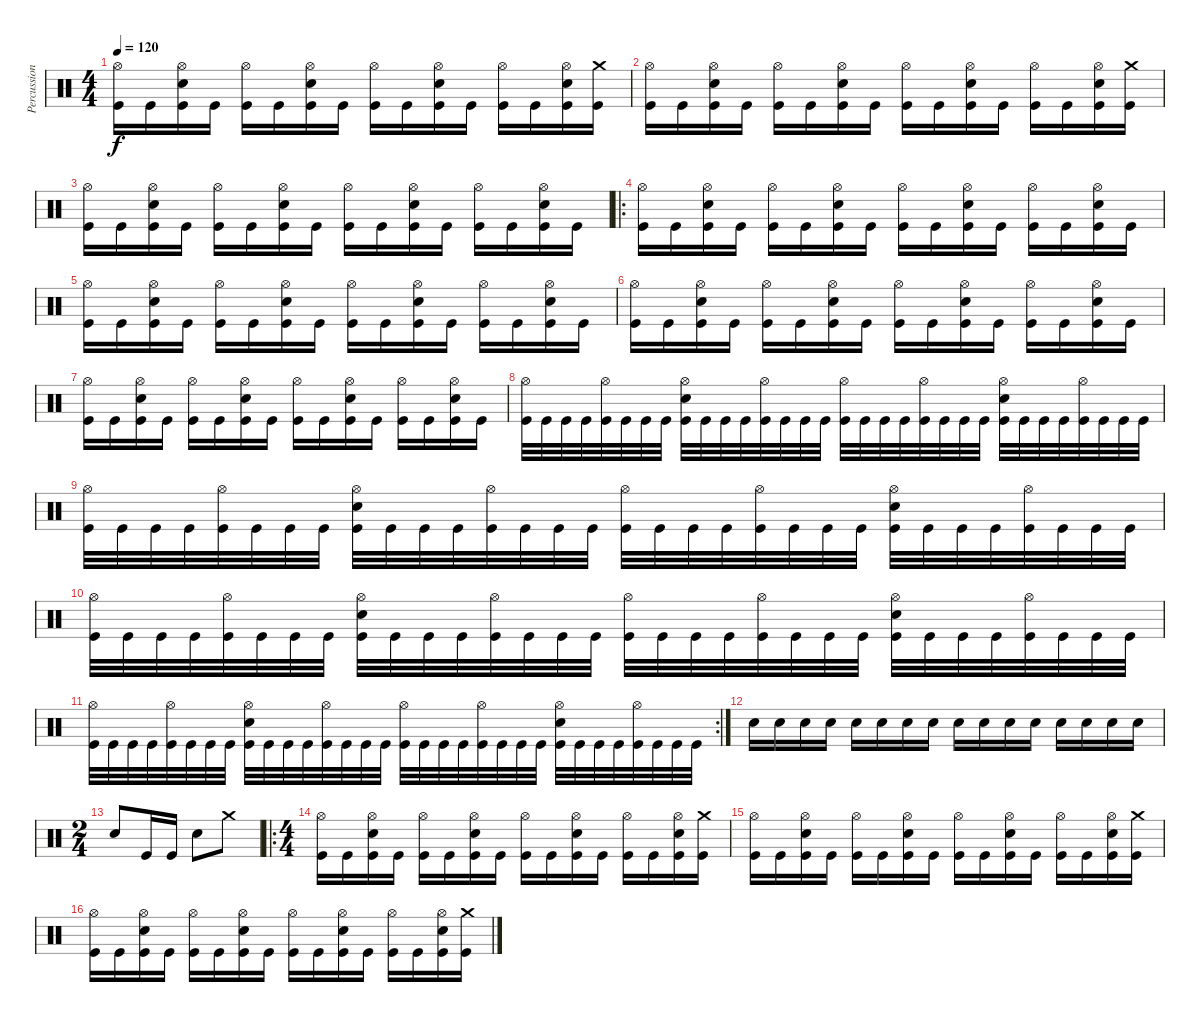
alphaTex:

\track ("Percussion" "Percussion") {instrument percussion}
\staff {score}
\articulation defaults
\ts (4 4)
\tempo 120
\clef neutral
\ks c
("Hi-Hat (open)" "Kick (hit)").16{dy f} "Kick (hit)".16 ("Hi-Hat (open)" "Snare (hit) 2" "Kick (hit)").16 "Kick (hit)".16 ("Hi-Hat (open)" "Kick (hit)").16 "Kick (hit)".16 ("Hi-Hat (open)" "Snare (hit) 2" "Kick (hit)").16 "Kick (hit)".16 ("Hi-Hat (open)" "Kick (hit)").16 "Kick (hit)".16 ("Hi-Hat (open)" "Snare (hit) 2" "Kick (hit)").16 "Kick (hit)".16 ("Hi-Hat (open)" "Kick (hit)").16 "Kick (hit)".16 ("Hi-Hat (open)" "Snare (hit) 2" "Kick (hit)").16 ("Crash medium (hit)" "Kick (hit)").16 |
("Hi-Hat (open)" "Kick (hit)").16 "Kick (hit)".16 ("Hi-Hat (open)" "Snare (hit) 2" "Kick (hit)").16 "Kick (hit)".16 ("Hi-Hat (open)" "Kick (hit)").16 "Kick (hit)".16 ("Hi-Hat (open)" "Snare (hit) 2" "Kick (hit)").16 "Kick (hit)".16 ("Hi-Hat (open)" "Kick (hit)").16 "Kick (hit)".16 ("Hi-Hat (open)" "Snare (hit) 2" "Kick (hit)").16 "Kick (hit)".16 ("Hi-Hat (open)" "Kick (hit)").16 "Kick (hit)".16 ("Hi-Hat (open)" "Snare (hit) 2" "Kick (hit)").16 ("Crash medium (hit)" "Kick (hit)").16 |
("Hi-Hat (open)" "Kick (hit)").16 "Kick (hit)".16 ("Hi-Hat (open)" "Snare (hit) 2" "Kick (hit)").16 "Kick (hit)".16 ("Hi-Hat (open)" "Kick (hit)").16 "Kick (hit)".16 ("Hi-Hat (open)" "Snare (hit) 2" "Kick (hit)").16 "Kick (hit)".16 ("Hi-Hat (open)" "Kick (hit)").16 "Kick (hit)".16 ("Hi-Hat (open)" "Snare (hit) 2" "Kick (hit)").16 "Kick (hit)".16 ("Hi-Hat (open)" "Kick (hit)").16 "Kick (hit)".16 ("Hi-Hat (open)" "Snare (hit) 2" "Kick (hit)").16 "Kick (hit)".16 |
\ro
("Hi-Hat (open)" "Kick (hit)").16 "Kick (hit)".16 ("Hi-Hat (open)" "Snare (hit) 2" "Kick (hit)").16 "Kick (hit)".16 ("Hi-Hat (open)" "Kick (hit)").16 "Kick (hit)".16 ("Hi-Hat (open)" "Snare (hit) 2" "Kick (hit)").16 "Kick (hit)".16 ("Hi-Hat (open)" "Kick (hit)").16 "Kick (hit)".16 ("Hi-Hat (open)" "Snare (hit) 2" "Kick (hit)").16 "Kick (hit)".16 ("Hi-Hat (open)" "Kick (hit)").16 "Kick (hit)".16 ("Hi-Hat (open)" "Snare (hit) 2" "Kick (hit)").16 "Kick (hit)".16 |
("Hi-Hat (open)" "Kick (hit)").16 "Kick (hit)".16 ("Hi-Hat (open)" "Snare (hit) 2" "Kick (hit)").16 "Kick (hit)".16 ("Hi-Hat (open)" "Kick (hit)").16 "Kick (hit)".16 ("Hi-Hat (open)" "Snare (hit) 2" "Kick (hit)").16 "Kick (hit)".16 ("Hi-Hat (open)" "Kick (hit)").16 "Kick (hit)".16 ("Hi-Hat (open)" "Snare (hit) 2" "Kick (hit)").16 "Kick (hit)".16 ("Hi-Hat (open)" "Kick (hit)").16 "Kick (hit)".16 ("Hi-Hat (open)" "Snare (hit) 2" "Kick (hit)").16 "Kick (hit)".16 |
("Hi-Hat (open)" "Kick (hit)").16 "Kick (hit)".16 ("Hi-Hat (open)" "Snare (hit) 2" "Kick (hit)").16 "Kick (hit)".16 ("Hi-Hat (open)" "Kick (hit)").16 "Kick (hit)".16 ("Hi-Hat (open)" "Snare (hit) 2" "Kick (hit)").16 "Kick (hit)".16 ("Hi-Hat (open)" "Kick (hit)").16 "Kick (hit)".16 ("Hi-Hat (open)" "Snare (hit) 2" "Kick (hit)").16 "Kick (hit)".16 ("Hi-Hat (open)" "Kick (hit)").16 "Kick (hit)".16 ("Hi-Hat (open)" "Snare (hit) 2" "Kick (hit)").16 "Kick (hit)".16 |
("Hi-Hat (open)" "Kick (hit)").16 "Kick (hit)".16 ("Hi-Hat (open)" "Snare (hit) 2" "Kick (hit)").16 "Kick (hit)".16 ("Hi-Hat (open)" "Kick (hit)").16 "Kick (hit)".16 ("Hi-Hat (open)" "Snare (hit) 2" "Kick (hit)").16 "Kick (hit)".16 ("Hi-Hat (open)" "Kick (hit)").16 "Kick (hit)".16 ("Hi-Hat (open)" "Snare (hit) 2" "Kick (hit)").16 "Kick (hit)".16 ("Hi-Hat (open)" "Kick (hit)").16 "Kick (hit)".16 ("Hi-Hat (open)" "Snare (hit) 2" "Kick (hit)").16 "Kick (hit)".16 |
("Hi-Hat (open)" "Kick (hit)").32 "Kick (hit)".32 "Kick (hit)".32 "Kick (hit)".32 ("Hi-Hat (open)" "Kick (hit)").32 "Kick (hit)".32 "Kick (hit)".32 "Kick (hit)".32 ("Hi-Hat (open)" "Snare (hit) 2" "Kick (hit)").32 "Kick (hit)".32 "Kick (hit)".32 "Kick (hit)".32 ("Hi-Hat (open)" "Kick (hit)").32 "Kick (hit)".32 "Kick (hit)".32 "Kick (hit)".32 ("Hi-Hat (open)" "Kick (hit)").32 "Kick (hit)".32 "Kick (hit)".32 "Kick (hit)".32 ("Hi-Hat (open)" "Kick (hit)").32 "Kick (hit)".32 "Kick (hit)".32 "Kick (hit)".32 ("Hi-Hat (open)" "Snare (hit) 2" "Kick (hit)").32 "Kick (hit)".32 "Kick (hit)".32 "Kick (hit)".32 ("Hi-Hat (open)" "Kick (hit)").32 "Kick (hit)".32 "Kick (hit)".32 "Kick (hit)".32 |
("Hi-Hat (open)" "Kick (hit)").32 "Kick (hit)".32 "Kick (hit)".32 "Kick (hit)".32 ("Hi-Hat (open)" "Kick (hit)").32 "Kick (hit)".32 "Kick (hit)".32 "Kick (hit)".32 ("Hi-Hat (open)" "Snare (hit) 2" "Kick (hit)").32 "Kick (hit)".32 "Kick (hit)".32 "Kick (hit)".32 ("Hi-Hat (open)" "Kick (hit)").32 "Kick (hit)".32 "Kick (hit)".32 "Kick (hit)".32 ("Hi-Hat (open)" "Kick (hit)").32 "Kick (hit)".32 "Kick (hit)".32 "Kick (hit)".32 ("Hi-Hat (open)" "Kick (hit)").32 "Kick (hit)".32 "Kick (hit)".32 "Kick (hit)".32 ("Hi-Hat (open)" "Snare (hit) 2" "Kick (hit)").32 "Kick (hit)".32 "Kick (hit)".32 "Kick (hit)".32 ("Hi-Hat (open)" "Kick (hit)").32 "Kick (hit)".32 "Kick (hit)".32 "Kick (hit)".32 |
("Hi-Hat (open)" "Kick (hit)").32 "Kick (hit)".32 "Kick (hit)".32 "Kick (hit)".32 ("Hi-Hat (open)" "Kick (hit)").32 "Kick (hit)".32 "Kick (hit)".32 "Kick (hit)".32 ("Hi-Hat (open)" "Snare (hit) 2" "Kick (hit)").32 "Kick (hit)".32 "Kick (hit)".32 "Kick (hit)".32 ("Hi-Hat (open)" "Kick (hit)").32 "Kick (hit)".32 "Kick (hit)".32 "Kick (hit)".32 ("Hi-Hat (open)" "Kick (hit)").32 "Kick (hit)".32 "Kick (hit)".32 "Kick (hit)".32 ("Hi-Hat (open)" "Kick (hit)").32 "Kick (hit)".32 "Kick (hit)".32 "Kick (hit)".32 ("Hi-Hat (open)" "Snare (hit) 2" "Kick (hit)").32 "Kick (hit)".32 "Kick (hit)".32 "Kick (hit)".32 ("Hi-Hat (open)" "Kick (hit)").32 "Kick (hit)".32 "Kick (hit)".32 "Kick (hit)".32 |
\rc 2
("Hi-Hat (open)" "Kick (hit)").32 "Kick (hit)".32 "Kick (hit)".32 "Kick (hit)".32 ("Hi-Hat (open)" "Kick (hit)").32 "Kick (hit)".32 "Kick (hit)".32 "Kick (hit)".32 ("Hi-Hat (open)" "Snare (hit) 2" "Kick (hit)").32 "Kick (hit)".32 "Kick (hit)".32 "Kick (hit)".32 ("Hi-Hat (open)" "Kick (hit)").32 "Kick (hit)".32 "Kick (hit)".32 "Kick (hit)".32 ("Hi-Hat (open)" "Kick (hit)").32 "Kick (hit)".32 "Kick (hit)".32 "Kick (hit)".32 ("Hi-Hat (open)" "Kick (hit)").32 "Kick (hit)".32 "Kick (hit)".32 "Kick (hit)".32 ("Hi-Hat (open)" "Snare (hit) 2" "Kick (hit)").32 "Kick (hit)".32 "Kick (hit)".32 "Kick (hit)".32 ("Hi-Hat (open)" "Kick (hit)").32 "Kick (hit)".32 "Kick (hit)".32 "Kick (hit)".32 |
"Snare (hit) 2".16 "Snare (hit) 2".16 "Snare (hit) 2".16 "Snare (hit) 2".16 "Snare (hit) 2".16 "Snare (hit) 2".16 "Snare (hit) 2".16 "Snare (hit) 2".16 "Snare (hit) 2".16 "Snare (hit) 2".16 "Snare (hit) 2".16 "Snare (hit) 2".16 "Snare (hit) 2".16 "Snare (hit) 2".16 "Snare (hit) 2".16 "Snare (hit) 2".16 |
\ts (2 4)
"Snare (hit) 2".8 "Kick (hit)".16 "Kick (hit)".16 "Snare (hit) 2".8 "Crash medium (hit)".8 |
\ro
\ts (4 4)
("Hi-Hat (open)" "Kick (hit)").16 "Kick (hit)".16 ("Hi-Hat (open)" "Snare (hit) 2" "Kick (hit)").16 "Kick (hit)".16 ("Hi-Hat (open)" "Kick (hit)").16 "Kick (hit)".16 ("Hi-Hat (open)" "Snare (hit) 2" "Kick (hit)").16 "Kick (hit)".16 ("Hi-Hat (open)" "Kick (hit)").16 "Kick (hit)".16 ("Hi-Hat (open)" "Snare (hit) 2" "Kick (hit)").16 "Kick (hit)".16 ("Hi-Hat (open)" "Kick (hit)").16 "Kick (hit)".16 ("Hi-Hat (open)" "Snare (hit) 2" "Kick (hit)").16 ("Crash medium (hit)" "Kick (hit)").16 |
("Hi-Hat (open)" "Kick (hit)").16 "Kick (hit)".16 ("Hi-Hat (open)" "Snare (hit) 2" "Kick (hit)").16 "Kick (hit)".16 ("Hi-Hat (open)" "Kick (hit)").16 "Kick (hit)".16 ("Hi-Hat (open)" "Snare (hit) 2" "Kick (hit)").16 "Kick (hit)".16 ("Hi-Hat (open)" "Kick (hit)").16 "Kick (hit)".16 ("Hi-Hat (open)" "Snare (hit) 2" "Kick (hit)").16 "Kick (hit)".16 ("Hi-Hat (open)" "Kick (hit)").16 "Kick (hit)".16 ("Hi-Hat (open)" "Snare (hit) 2" "Kick (hit)").16 ("Crash medium (hit)" "Kick (hit)").16 |
("Hi-Hat (open)" "Kick (hit)").16 "Kick (hit)".16 ("Hi-Hat (open)" "Snare (hit) 2" "Kick (hit)").16 "Kick (hit)".16 ("Hi-Hat (open)" "Kick (hit)").16 "Kick (hit)".16 ("Hi-Hat (open)" "Snare (hit) 2" "Kick (hit)").16 "Kick (hit)".16 ("Hi-Hat (open)" "Kick (hit)").16 "Kick (hit)".16 ("Hi-Hat (open)" "Snare (hit) 2" "Kick (hit)").16 "Kick (hit)".16 ("Hi-Hat (open)" "Kick (hit)").16 "Kick (hit)".16 ("Hi-Hat (open)" "Snare (hit) 2" "Kick (hit)").16 ("Crash medium (hit)" "Kick (hit)").16
